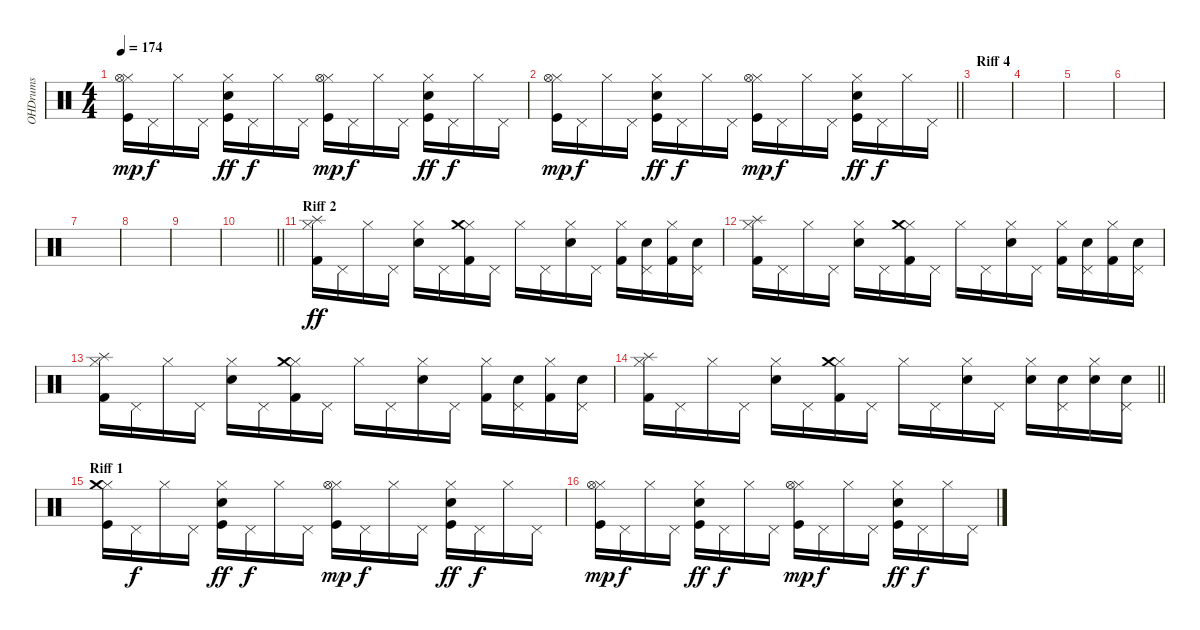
\track ("OHDrums" "OHDrums") {instrument percussion}
\staff {score}
\articulation defaults
\ts (4 4)
\tempo 174
\clef neutral
\ks c
("Kick (hit)" "Hi-Hat (closed)" "Hi-Hat (open)").16{dy mp} "Pedal Hi-Hat (hit)".16{dy f} "Hi-Hat (closed)".16 "Pedal Hi-Hat (hit)".16 ("Kick (hit)" "Electric Snare (hit)" "Hi-Hat (closed)").16{dy ff} "Pedal Hi-Hat (hit)".16{dy f} "Hi-Hat (closed)".16 "Pedal Hi-Hat (hit)".16 ("Kick (hit)" "Hi-Hat (closed)" "Hi-Hat (open)").16{dy mp} "Pedal Hi-Hat (hit)".16{dy f} "Hi-Hat (closed)".16 "Pedal Hi-Hat (hit)".16 ("Kick (hit)" "Electric Snare (hit)" "Hi-Hat (closed)").16{dy ff} "Pedal Hi-Hat (hit)".16{dy f} "Hi-Hat (closed)".16 "Pedal Hi-Hat (hit)".16 |
\barLineRight lightlight
("Kick (hit)" "Hi-Hat (closed)" "Hi-Hat (open)").16{dy mp} "Pedal Hi-Hat (hit)".16{dy f} "Hi-Hat (closed)".16 "Pedal Hi-Hat (hit)".16 ("Kick (hit)" "Electric Snare (hit)" "Hi-Hat (closed)").16{dy ff} "Pedal Hi-Hat (hit)".16{dy f} "Hi-Hat (closed)".16 "Pedal Hi-Hat (hit)".16 ("Kick (hit)" "Hi-Hat (closed)" "Hi-Hat (open)").16{dy mp} "Pedal Hi-Hat (hit)".16{dy f} "Hi-Hat (closed)".16 "Pedal Hi-Hat (hit)".16 ("Kick (hit)" "Electric Snare (hit)" "Hi-Hat (closed)").16{dy ff} "Pedal Hi-Hat (hit)".16{dy f} "Hi-Hat (closed)".16 "Pedal Hi-Hat (hit)".16 |
\section ("" "Riff 4")
|
|
|
|
|
|
|
\barLineRight lightlight
|
\section ("" "Riff 2")
("Kick (hit) 2" "Hi-Hat (closed)" "Splash (hit)").16{dy ff} "Pedal Hi-Hat (hit)".16 "Hi-Hat (closed)".16 "Pedal Hi-Hat (hit)".16 ("Electric Snare (hit)" "Hi-Hat (closed)").16 "Pedal Hi-Hat (hit)".16 ("Kick (hit) 2" "Hi-Hat (closed)" "Crash medium (hit)").16 "Pedal Hi-Hat (hit)".16 "Hi-Hat (closed)".16 "Pedal Hi-Hat (hit)".16 ("Electric Snare (hit)" "Hi-Hat (closed)").16 "Pedal Hi-Hat (hit)".16 ("Kick (hit) 2" "Hi-Hat (closed)").16 ("Electric Snare (hit)" "Pedal Hi-Hat (hit)").16 ("Kick (hit) 2" "Hi-Hat (closed)").16 ("Electric Snare (hit)" "Pedal Hi-Hat (hit)").16 |
("Kick (hit) 2" "Hi-Hat (closed)" "Splash (hit)").16 "Pedal Hi-Hat (hit)".16 "Hi-Hat (closed)".16 "Pedal Hi-Hat (hit)".16 ("Electric Snare (hit)" "Hi-Hat (closed)").16 "Pedal Hi-Hat (hit)".16 ("Kick (hit) 2" "Hi-Hat (closed)" "Crash medium (hit)").16 "Pedal Hi-Hat (hit)".16 "Hi-Hat (closed)".16 "Pedal Hi-Hat (hit)".16 ("Electric Snare (hit)" "Hi-Hat (closed)").16 "Pedal Hi-Hat (hit)".16 ("Kick (hit) 2" "Hi-Hat (closed)").16 ("Electric Snare (hit)" "Pedal Hi-Hat (hit)").16 ("Kick (hit) 2" "Hi-Hat (closed)").16 ("Electric Snare (hit)" "Pedal Hi-Hat (hit)").16 |
("Kick (hit) 2" "Hi-Hat (closed)" "Splash (hit)").16 "Pedal Hi-Hat (hit)".16 "Hi-Hat (closed)".16 "Pedal Hi-Hat (hit)".16 ("Electric Snare (hit)" "Hi-Hat (closed)").16 "Pedal Hi-Hat (hit)".16 ("Kick (hit) 2" "Hi-Hat (closed)" "Crash medium (hit)").16 "Pedal Hi-Hat (hit)".16 "Hi-Hat (closed)".16 "Pedal Hi-Hat (hit)".16 ("Electric Snare (hit)" "Hi-Hat (closed)").16 "Pedal Hi-Hat (hit)".16 ("Kick (hit) 2" "Hi-Hat (closed)").16 ("Electric Snare (hit)" "Pedal Hi-Hat (hit)").16 ("Kick (hit) 2" "Hi-Hat (closed)").16 ("Electric Snare (hit)" "Pedal Hi-Hat (hit)").16 |
\barLineRight lightlight
("Kick (hit) 2" "Hi-Hat (closed)" "Splash (hit)").16 "Pedal Hi-Hat (hit)".16 "Hi-Hat (closed)".16 "Pedal Hi-Hat (hit)".16 ("Electric Snare (hit)" "Hi-Hat (closed)").16 "Pedal Hi-Hat (hit)".16 ("Kick (hit) 2" "Hi-Hat (closed)" "Crash medium (hit)").16 "Pedal Hi-Hat (hit)".16 "Hi-Hat (closed)".16 "Pedal Hi-Hat (hit)".16 ("Electric Snare (hit)" "Hi-Hat (closed)").16 "Pedal Hi-Hat (hit)".16 ("Electric Snare (hit)" "Hi-Hat (closed)").16 ("Electric Snare (hit)" "Pedal Hi-Hat (hit)").16 ("Electric Snare (hit)" "Hi-Hat (closed)").16 ("Electric Snare (hit)" "Pedal Hi-Hat (hit)").16 |
\section ("" "Riff 1")
("Kick (hit)" "Hi-Hat (closed)" "Crash medium (hit)").16 "Pedal Hi-Hat (hit)".16{dy f} "Hi-Hat (closed)".16 "Pedal Hi-Hat (hit)".16 ("Kick (hit)" "Electric Snare (hit)" "Hi-Hat (closed)").16{dy ff} "Pedal Hi-Hat (hit)".16{dy f} "Hi-Hat (closed)".16 "Pedal Hi-Hat (hit)".16 ("Kick (hit)" "Hi-Hat (closed)" "Hi-Hat (open)").16{dy mp} "Pedal Hi-Hat (hit)".16{dy f} "Hi-Hat (closed)".16 "Pedal Hi-Hat (hit)".16 ("Kick (hit)" "Electric Snare (hit)" "Hi-Hat (closed)").16{dy ff} "Pedal Hi-Hat (hit)".16{dy f} "Hi-Hat (closed)".16 "Pedal Hi-Hat (hit)".16 |
("Kick (hit)" "Hi-Hat (closed)" "Hi-Hat (open)").16{dy mp} "Pedal Hi-Hat (hit)".16{dy f} "Hi-Hat (closed)".16 "Pedal Hi-Hat (hit)".16 ("Kick (hit)" "Electric Snare (hit)" "Hi-Hat (closed)").16{dy ff} "Pedal Hi-Hat (hit)".16{dy f} "Hi-Hat (closed)".16 "Pedal Hi-Hat (hit)".16 ("Kick (hit)" "Hi-Hat (closed)" "Hi-Hat (open)").16{dy mp} "Pedal Hi-Hat (hit)".16{dy f} "Hi-Hat (closed)".16 "Pedal Hi-Hat (hit)".16 ("Kick (hit)" "Electric Snare (hit)" "Hi-Hat (closed)").16{dy ff} "Pedal Hi-Hat (hit)".16{dy f} "Hi-Hat (closed)".16 "Pedal Hi-Hat (hit)".16
